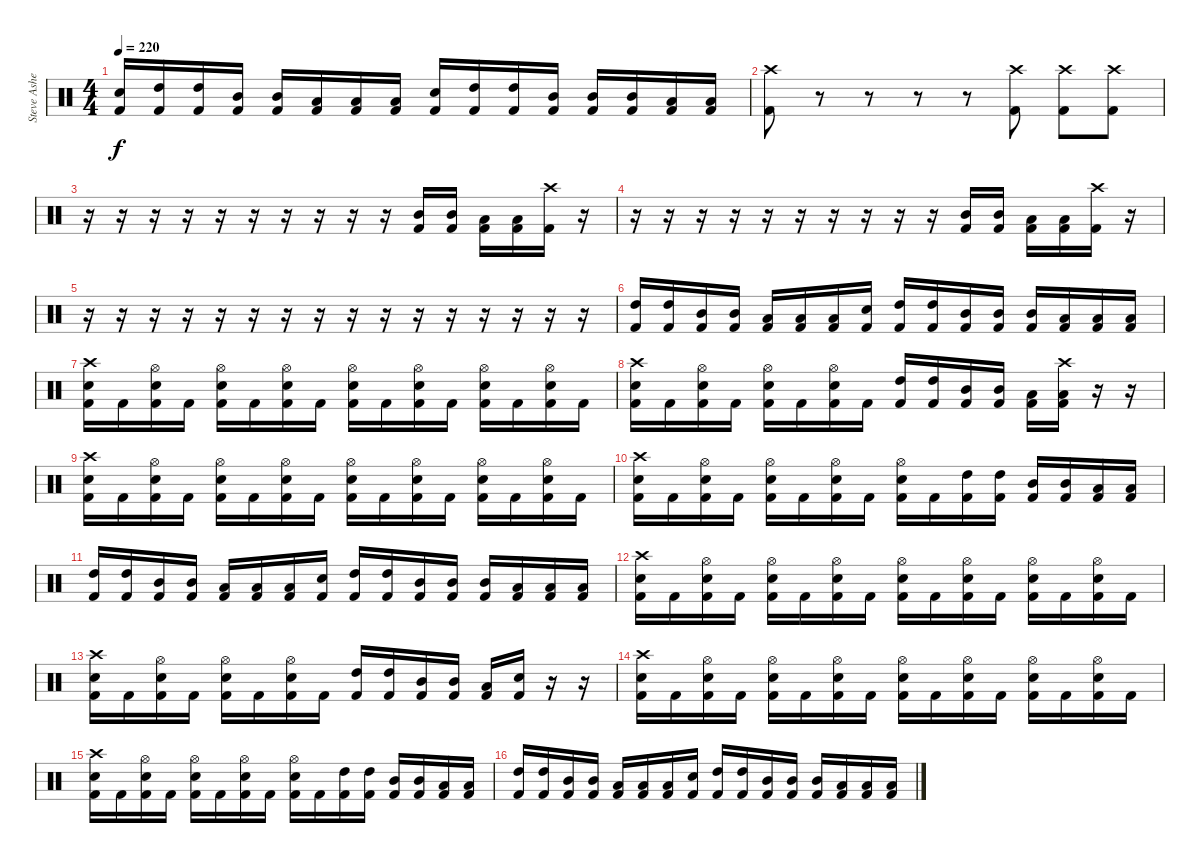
\track ("Steve Asheim" "Steve Ashe") {instrument percussion}
\staff {score}
\articulation defaults
\ts (4 4)
\tempo 220
\clef neutral
\ks c
("Electric Snare (hit)" "Kick (hit) 2").16{dy f} ("High Tom (hit)" "Kick (hit) 2").16 ("High Tom (hit)" "Kick (hit) 2").16 ("Mid Tom (hit)" "Kick (hit) 2").16 ("Mid Tom (hit)" "Kick (hit) 2").16 ("Low Tom (hit)" "Kick (hit) 2").16 ("Low Tom (hit)" "Kick (hit) 2").16 ("Low Tom (hit)" "Kick (hit) 2").16 ("Electric Snare (hit)" "Kick (hit) 2").16 ("High Tom (hit)" "Kick (hit) 2").16 ("High Tom (hit)" "Kick (hit) 2").16 ("Mid Tom (hit)" "Kick (hit) 2").16 ("Mid Tom (hit)" "Kick (hit) 2").16 ("Mid Tom (hit)" "Kick (hit) 2").16 ("Low Tom (hit)" "Kick (hit) 2").16 ("Low Tom (hit)" "Kick (hit) 2").16 |
("Crash high (hit)" "Kick (hit) 2").8 r.8 r.8 r.8 r.8 ("Crash high (hit)" "Kick (hit) 2").8 ("Crash high (hit)" "Kick (hit) 2").8 ("Crash high (hit)" "Kick (hit) 2").8 |
r.16 r.16 r.16 r.16 r.16 r.16 r.16 r.16 r.16 r.16 ("Mid Tom (hit)" "Kick (hit) 2").16 ("Mid Tom (hit)" "Kick (hit) 2").16 ("Low Tom (hit)" "Kick (hit) 2").16 ("Low Tom (hit)" "Kick (hit) 2").16 ("Crash high (hit)" "Kick (hit) 2").16 r.16 |
r.16 r.16 r.16 r.16 r.16 r.16 r.16 r.16 r.16 r.16 ("Mid Tom (hit)" "Kick (hit) 2").16 ("Mid Tom (hit)" "Kick (hit) 2").16 ("Low Tom (hit)" "Kick (hit) 2").16 ("Low Tom (hit)" "Kick (hit) 2").16 ("Crash high (hit)" "Kick (hit) 2").16 r.16 |
r.16 r.16 r.16 r.16 r.16 r.16 r.16 r.16 r.16 r.16 r.16 r.16 r.16 r.16 r.16 r.16 |
("High Tom (hit)" "Kick (hit) 2").16 ("High Tom (hit)" "Kick (hit) 2").16 ("Mid Tom (hit)" "Kick (hit) 2").16 ("Mid Tom (hit)" "Kick (hit) 2").16 ("Low Tom (hit)" "Kick (hit) 2").16 ("Low Tom (hit)" "Kick (hit) 2").16 ("Low Tom (hit)" "Kick (hit) 2").16 ("Electric Snare (hit)" "Kick (hit) 2").16 ("High Tom (hit)" "Kick (hit) 2").16 ("High Tom (hit)" "Kick (hit) 2").16 ("Mid Tom (hit)" "Kick (hit) 2").16 ("Mid Tom (hit)" "Kick (hit) 2").16 ("Mid Tom (hit)" "Kick (hit) 2").16 ("Low Tom (hit)" "Kick (hit) 2").16 ("Low Tom (hit)" "Kick (hit) 2").16 ("Low Tom (hit)" "Kick (hit) 2").16 |
("Crash high (hit)" "Electric Snare (hit)" "Kick (hit) 2").16 "Kick (hit) 2".16 ("Hi-Hat (open)" "Electric Snare (hit)" "Kick (hit) 2").16 "Kick (hit) 2".16 ("Hi-Hat (open)" "Electric Snare (hit)" "Kick (hit) 2").16 "Kick (hit) 2".16 ("Hi-Hat (open)" "Electric Snare (hit)" "Kick (hit) 2").16 "Kick (hit) 2".16 ("Hi-Hat (open)" "Electric Snare (hit)" "Kick (hit) 2").16 "Kick (hit) 2".16 ("Hi-Hat (open)" "Electric Snare (hit)" "Kick (hit) 2").16 "Kick (hit) 2".16 ("Hi-Hat (open)" "Electric Snare (hit)" "Kick (hit) 2").16 "Kick (hit) 2".16 ("Hi-Hat (open)" "Electric Snare (hit)" "Kick (hit) 2").16 "Kick (hit) 2".16 |
("Crash high (hit)" "Electric Snare (hit)" "Kick (hit) 2").16 "Kick (hit) 2".16 ("Hi-Hat (open)" "Electric Snare (hit)" "Kick (hit) 2").16 "Kick (hit) 2".16 ("Hi-Hat (open)" "Electric Snare (hit)" "Kick (hit) 2").16 "Kick (hit) 2".16 ("Hi-Hat (open)" "Electric Snare (hit)" "Kick (hit) 2").16 "Kick (hit) 2".16 ("High Tom (hit)" "Kick (hit) 2").16 ("High Tom (hit)" "Kick (hit) 2").16 ("Mid Tom (hit)" "Kick (hit) 2").16 ("Mid Tom (hit)" "Kick (hit) 2").16 ("Low Tom (hit)" "Kick (hit) 2").16 ("Crash high (hit)" "Low Tom (hit)" "Kick (hit) 2").16 r.16 r.16 |
("Crash high (hit)" "Electric Snare (hit)" "Kick (hit) 2").16 "Kick (hit) 2".16 ("Hi-Hat (open)" "Electric Snare (hit)" "Kick (hit) 2").16 "Kick (hit) 2".16 ("Hi-Hat (open)" "Electric Snare (hit)" "Kick (hit) 2").16 "Kick (hit) 2".16 ("Hi-Hat (open)" "Electric Snare (hit)" "Kick (hit) 2").16 "Kick (hit) 2".16 ("Hi-Hat (open)" "Electric Snare (hit)" "Kick (hit) 2").16 "Kick (hit) 2".16 ("Hi-Hat (open)" "Electric Snare (hit)" "Kick (hit) 2").16 "Kick (hit) 2".16 ("Hi-Hat (open)" "Electric Snare (hit)" "Kick (hit) 2").16 "Kick (hit) 2".16 ("Hi-Hat (open)" "Electric Snare (hit)" "Kick (hit) 2").16 "Kick (hit) 2".16 |
("Crash high (hit)" "Electric Snare (hit)" "Kick (hit) 2").16 "Kick (hit) 2".16 ("Hi-Hat (open)" "Electric Snare (hit)" "Kick (hit) 2").16 "Kick (hit) 2".16 ("Hi-Hat (open)" "Electric Snare (hit)" "Kick (hit) 2").16 "Kick (hit) 2".16 ("Hi-Hat (open)" "Electric Snare (hit)" "Kick (hit) 2").16 "Kick (hit) 2".16 ("Hi-Hat (open)" "Electric Snare (hit)" "Kick (hit) 2").16 "Kick (hit) 2".16 ("High Tom (hit)" "Kick (hit) 2").16 ("High Tom (hit)" "Kick (hit) 2").16 ("Mid Tom (hit)" "Kick (hit) 2").16 ("Mid Tom (hit)" "Kick (hit) 2").16 ("Low Tom (hit)" "Kick (hit) 2").16 ("Low Tom (hit)" "Kick (hit) 2").16 |
("High Tom (hit)" "Kick (hit) 2").16 ("High Tom (hit)" "Kick (hit) 2").16 ("Mid Tom (hit)" "Kick (hit) 2").16 ("Mid Tom (hit)" "Kick (hit) 2").16 ("Low Tom (hit)" "Kick (hit) 2").16 ("Low Tom (hit)" "Kick (hit) 2").16 ("Low Tom (hit)" "Kick (hit) 2").16 ("Electric Snare (hit)" "Kick (hit) 2").16 ("High Tom (hit)" "Kick (hit) 2").16 ("High Tom (hit)" "Kick (hit) 2").16 ("Mid Tom (hit)" "Kick (hit) 2").16 ("Mid Tom (hit)" "Kick (hit) 2").16 ("Mid Tom (hit)" "Kick (hit) 2").16 ("Low Tom (hit)" "Kick (hit) 2").16 ("Low Tom (hit)" "Kick (hit) 2").16 ("Low Tom (hit)" "Kick (hit) 2").16 |
("Crash high (hit)" "Electric Snare (hit)" "Kick (hit) 2").16 "Kick (hit) 2".16 ("Hi-Hat (open)" "Electric Snare (hit)" "Kick (hit) 2").16 "Kick (hit) 2".16 ("Hi-Hat (open)" "Electric Snare (hit)" "Kick (hit) 2").16 "Kick (hit) 2".16 ("Hi-Hat (open)" "Electric Snare (hit)" "Kick (hit) 2").16 "Kick (hit) 2".16 ("Hi-Hat (open)" "Electric Snare (hit)" "Kick (hit) 2").16 "Kick (hit) 2".16 ("Hi-Hat (open)" "Electric Snare (hit)" "Kick (hit) 2").16 "Kick (hit) 2".16 ("Hi-Hat (open)" "Electric Snare (hit)" "Kick (hit) 2").16 "Kick (hit) 2".16 ("Hi-Hat (open)" "Electric Snare (hit)" "Kick (hit) 2").16 "Kick (hit) 2".16 |
("Crash high (hit)" "Electric Snare (hit)" "Kick (hit) 2").16 "Kick (hit) 2".16 ("Hi-Hat (open)" "Electric Snare (hit)" "Kick (hit) 2").16 "Kick (hit) 2".16 ("Hi-Hat (open)" "Electric Snare (hit)" "Kick (hit) 2").16 "Kick (hit) 2".16 ("Hi-Hat (open)" "Electric Snare (hit)" "Kick (hit) 2").16 "Kick (hit) 2".16 ("High Tom (hit)" "Kick (hit) 2").16 ("High Tom (hit)" "Kick (hit) 2").16 ("Mid Tom (hit)" "Kick (hit) 2").16 ("Mid Tom (hit)" "Kick (hit) 2").16 ("Low Tom (hit)" "Kick (hit) 2").16 ("Electric Snare (hit)" "Kick (hit) 2").16 r.16 r.16 |
("Crash high (hit)" "Electric Snare (hit)" "Kick (hit) 2").16 "Kick (hit) 2".16 ("Hi-Hat (open)" "Electric Snare (hit)" "Kick (hit) 2").16 "Kick (hit) 2".16 ("Hi-Hat (open)" "Electric Snare (hit)" "Kick (hit) 2").16 "Kick (hit) 2".16 ("Hi-Hat (open)" "Electric Snare (hit)" "Kick (hit) 2").16 "Kick (hit) 2".16 ("Hi-Hat (open)" "Electric Snare (hit)" "Kick (hit) 2").16 "Kick (hit) 2".16 ("Hi-Hat (open)" "Electric Snare (hit)" "Kick (hit) 2").16 "Kick (hit) 2".16 ("Hi-Hat (open)" "Electric Snare (hit)" "Kick (hit) 2").16 "Kick (hit) 2".16 ("Hi-Hat (open)" "Electric Snare (hit)" "Kick (hit) 2").16 "Kick (hit) 2".16 |
("Crash high (hit)" "Electric Snare (hit)" "Kick (hit) 2").16 "Kick (hit) 2".16 ("Hi-Hat (open)" "Electric Snare (hit)" "Kick (hit) 2").16 "Kick (hit) 2".16 ("Hi-Hat (open)" "Electric Snare (hit)" "Kick (hit) 2").16 "Kick (hit) 2".16 ("Hi-Hat (open)" "Electric Snare (hit)" "Kick (hit) 2").16 "Kick (hit) 2".16 ("Hi-Hat (open)" "Electric Snare (hit)" "Kick (hit) 2").16 "Kick (hit) 2".16 ("High Tom (hit)" "Kick (hit) 2").16 ("High Tom (hit)" "Kick (hit) 2").16 ("Mid Tom (hit)" "Kick (hit) 2").16 ("Mid Tom (hit)" "Kick (hit) 2").16 ("Low Tom (hit)" "Kick (hit) 2").16 ("Low Tom (hit)" "Kick (hit) 2").16 |
("High Tom (hit)" "Kick (hit) 2").16 ("High Tom (hit)" "Kick (hit) 2").16 ("Mid Tom (hit)" "Kick (hit) 2").16 ("Mid Tom (hit)" "Kick (hit) 2").16 ("Low Tom (hit)" "Kick (hit) 2").16 ("Low Tom (hit)" "Kick (hit) 2").16 ("Low Tom (hit)" "Kick (hit) 2").16 ("Electric Snare (hit)" "Kick (hit) 2").16 ("High Tom (hit)" "Kick (hit) 2").16 ("High Tom (hit)" "Kick (hit) 2").16 ("Mid Tom (hit)" "Kick (hit) 2").16 ("Mid Tom (hit)" "Kick (hit) 2").16 ("Mid Tom (hit)" "Kick (hit) 2").16 ("Low Tom (hit)" "Kick (hit) 2").16 ("Low Tom (hit)" "Kick (hit) 2").16 ("Low Tom (hit)" "Kick (hit) 2").16
